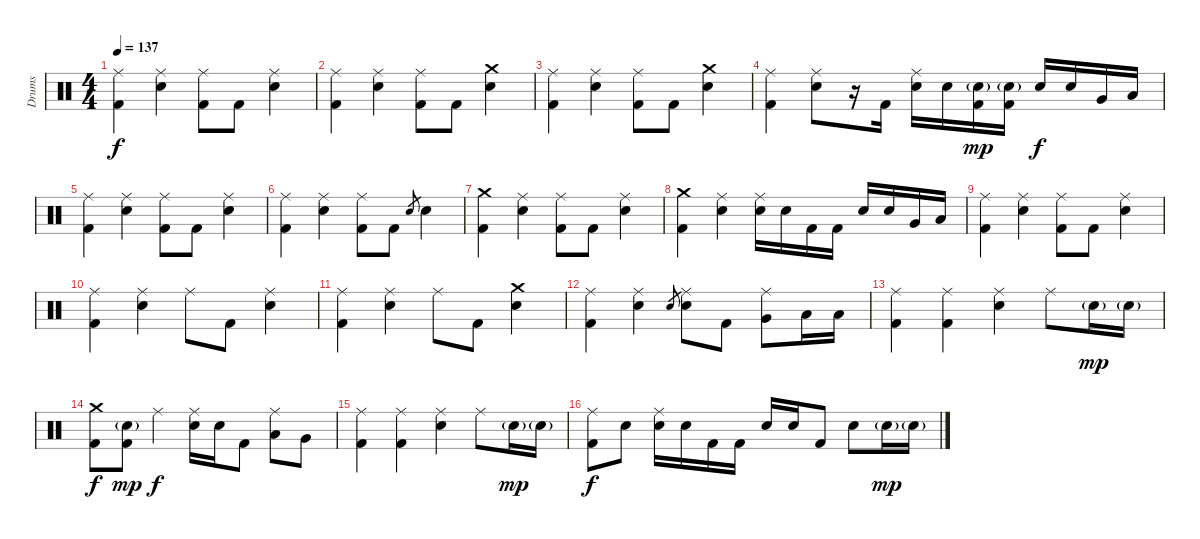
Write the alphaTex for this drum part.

\track ("Drums" "Drums") {instrument percussion}
\staff {score}
\articulation defaults
\ts (4 4)
\tempo 137
\clef neutral
\ks c
("Ride (middle)" "Kick (hit) 2").4{dy f} ("Ride (middle)" "Electric Snare (hit)").4 ("Ride (middle)" "Kick (hit) 2").8 "Kick (hit) 2".8 ("Ride (middle)" "Electric Snare (hit)").4 |
("Ride (middle)" "Kick (hit) 2").4 ("Ride (middle)" "Electric Snare (hit)").4 ("Ride (middle)" "Kick (hit) 2").8 "Kick (hit) 2".8 ("Crash medium (hit)" "Electric Snare (hit)").4 |
("Ride (middle)" "Kick (hit) 2").4 ("Ride (middle)" "Electric Snare (hit)").4 ("Ride (middle)" "Kick (hit) 2").8 "Kick (hit) 2".8 ("Crash medium (hit)" "Electric Snare (hit)").4 |
("Ride (middle)" "Kick (hit) 2").4 ("Ride (middle)" "Electric Snare (hit)").8 r.16 "Kick (hit) 2".16 ("Ride (middle)" "Electric Snare (hit)").16 "Electric Snare (hit)".16 ("Electric Snare (hit)"{g} "Kick (hit) 2").16{dy mp} ("Electric Snare (hit)"{g} "Kick (hit) 2").16 "Electric Snare (hit)".16{dy f} "Electric Snare (hit)".16 "Very Low Tom (hit)".16 "Low Floor Tom (hit)".16 |
("Ride (middle)" "Kick (hit) 2").4 ("Ride (middle)" "Electric Snare (hit)").4 ("Ride (middle)" "Kick (hit) 2").8 "Kick (hit) 2".8 ("Ride (middle)" "Electric Snare (hit)").4 |
("Ride (middle)" "Kick (hit) 2").4 ("Ride (middle)" "Electric Snare (hit)").4 ("Ride (middle)" "Kick (hit) 2").8 "Kick (hit) 2".8 "Electric Snare (hit)".8{gr} "Electric Snare (hit)".4 |
("Crash medium (hit)" "Kick (hit) 2").4 ("Ride (middle)" "Electric Snare (hit)").4 ("Ride (middle)" "Kick (hit) 2").8 "Kick (hit) 2".8 ("Ride (middle)" "Electric Snare (hit)").4 |
("Crash medium (hit)" "Kick (hit) 2").4 ("Ride (middle)" "Electric Snare (hit)").4 ("Ride (middle)" "Electric Snare (hit)").16 "Electric Snare (hit)".16 "Kick (hit) 2".16 "Kick (hit) 2".16 "Electric Snare (hit)".16 "Electric Snare (hit)".16 "Very Low Tom (hit)".16 "Low Floor Tom (hit)".16 |
("Ride (middle)" "Kick (hit) 2").4 ("Ride (middle)" "Electric Snare (hit)").4 ("Ride (middle)" "Kick (hit) 2").8 "Kick (hit) 2".8 ("Ride (middle)" "Electric Snare (hit)").4 |
("Ride (middle)" "Kick (hit) 2").4 ("Ride (middle)" "Electric Snare (hit)").4 "Ride (middle)".8 "Kick (hit) 2".8 ("Ride (middle)" "Electric Snare (hit)").4 |
("Ride (middle)" "Kick (hit) 2").4 ("Ride (middle)" "Electric Snare (hit)").4 "Ride (middle)".8 "Kick (hit) 2".8 ("Crash medium (hit)" "Electric Snare (hit)").4 |
("Ride (middle)" "Kick (hit) 2").4 ("Ride (middle)" "Electric Snare (hit)").4 "Electric Snare (hit)".8{gr} ("Ride (middle)" "Electric Snare (hit)").8 "Kick (hit) 2".8 ("Ride (middle)" "Very Low Tom (hit)").8 "Low Floor Tom (hit)".16 "Low Floor Tom (hit)".16 |
("Ride (middle)" "Kick (hit) 2").4 ("Ride (middle)" "Kick (hit) 2").4 ("Ride (middle)" "Electric Snare (hit)").4 "Ride (middle)".8 "Electric Snare (hit)"{g}.16{dy mp} "Electric Snare (hit)"{g}.16 |
("Crash medium (hit)" "Kick (hit) 2").8{dy f} ("Electric Snare (hit)"{g} "Kick (hit) 2").8{dy mp} "Ride (middle)".4{dy f} ("Ride (middle)" "Electric Snare (hit)").16 "Electric Snare (hit)".16 "Kick (hit) 2".8 ("Ride (middle)" "Low Tom (hit)").8 "Very Low Tom (hit)".8 |
("Ride (middle)" "Kick (hit) 2").4 ("Ride (middle)" "Kick (hit) 2").4 ("Ride (middle)" "Electric Snare (hit)").4 "Ride (middle)".8 "Electric Snare (hit)"{g}.16{dy mp} "Electric Snare (hit)"{g}.16 |
("Ride (middle)" "Kick (hit) 2").8{dy f} "Electric Snare (hit)".8 ("Ride (middle)" "Electric Snare (hit)").16 "Electric Snare (hit)".16 "Kick (hit) 2".16 "Kick (hit) 2".16 "Electric Snare (hit)".16 "Electric Snare (hit)".16 "Kick (hit) 2".8 "Electric Snare (hit)".8 "Electric Snare (hit)"{g}.16{dy mp} "Electric Snare (hit)"{g}.16
